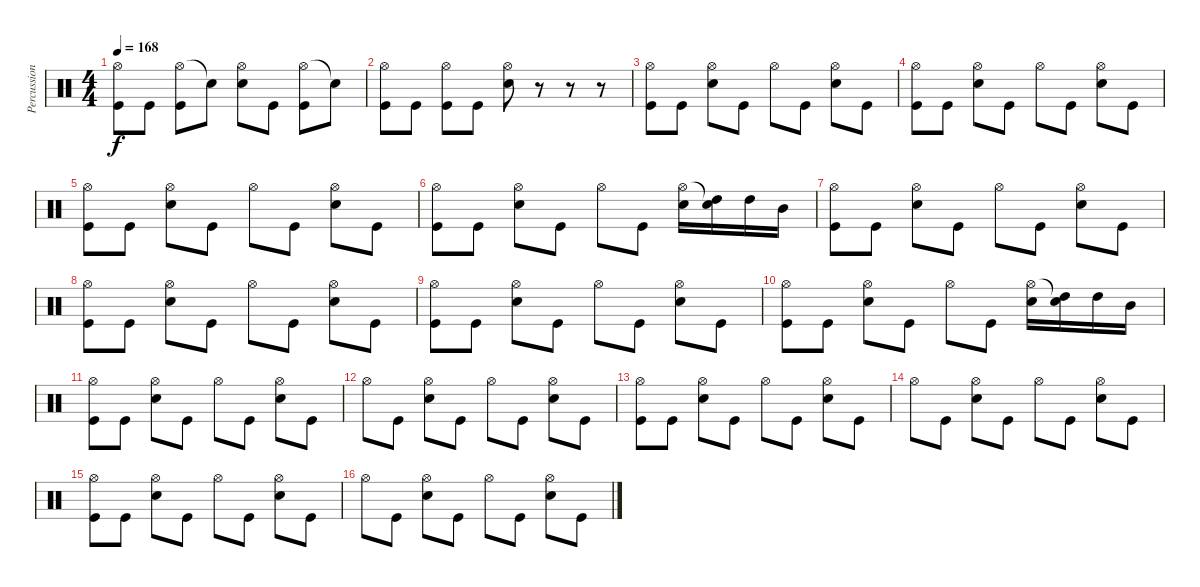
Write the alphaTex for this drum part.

\track ("Percussions" "Percussion") {instrument percussion}
\staff {score}
\articulation defaults
\ts (4 4)
\tempo 168
\clef neutral
\ks c
("Hi-Hat (open)" "Kick (hit)").8{dy f} "Kick (hit)".8 ("Hi-Hat (open)" "Kick (hit)").8 "Snare (hit)"{t}.8 ("Hi-Hat (open)" "Snare (hit) 2").8 "Kick (hit)".8 ("Hi-Hat (open)" "Kick (hit)").8 "Snare (hit)"{t}.8 |
("Hi-Hat (open)" "Kick (hit)").8 "Kick (hit)".8 ("Hi-Hat (open)" "Kick (hit)").8 "Kick (hit)".8 ("Hi-Hat (open)" "Snare (hit) 2").8 r.8 r.8 r.8 |
("Hi-Hat (open)" "Kick (hit)").8 "Kick (hit)".8 ("Hi-Hat (open)" "Snare (hit) 2").8 "Kick (hit)".8 "Hi-Hat (open)".8 "Kick (hit)".8 ("Hi-Hat (open)" "Snare (hit) 2").8 "Kick (hit)".8 |
("Hi-Hat (open)" "Kick (hit)").8 "Kick (hit)".8 ("Hi-Hat (open)" "Snare (hit) 2").8 "Kick (hit)".8 "Hi-Hat (open)".8 "Kick (hit)".8 ("Hi-Hat (open)" "Snare (hit) 2").8 "Kick (hit)".8 |
("Hi-Hat (open)" "Kick (hit)").8 "Kick (hit)".8 ("Hi-Hat (open)" "Snare (hit) 2").8 "Kick (hit)".8 "Hi-Hat (open)".8 "Kick (hit)".8 ("Hi-Hat (open)" "Snare (hit) 2").8 "Kick (hit)".8 |
("Hi-Hat (open)" "Kick (hit)").8 "Kick (hit)".8 ("Hi-Hat (open)" "Snare (hit) 2").8 "Kick (hit)".8 "Hi-Hat (open)".8 "Kick (hit)".8 ("Hi-Hat (open)" "Snare (hit) 2").16 ("Snare (hit)"{t} "High Tom (hit)").16 "High Tom (hit)".16 "Mid Tom (hit)".16 |
("Hi-Hat (open)" "Kick (hit)").8 "Kick (hit)".8 ("Hi-Hat (open)" "Snare (hit) 2").8 "Kick (hit)".8 "Hi-Hat (open)".8 "Kick (hit)".8 ("Hi-Hat (open)" "Snare (hit) 2").8 "Kick (hit)".8 |
("Hi-Hat (open)" "Kick (hit)").8 "Kick (hit)".8 ("Hi-Hat (open)" "Snare (hit) 2").8 "Kick (hit)".8 "Hi-Hat (open)".8 "Kick (hit)".8 ("Hi-Hat (open)" "Snare (hit) 2").8 "Kick (hit)".8 |
("Hi-Hat (open)" "Kick (hit)").8 "Kick (hit)".8 ("Hi-Hat (open)" "Snare (hit) 2").8 "Kick (hit)".8 "Hi-Hat (open)".8 "Kick (hit)".8 ("Hi-Hat (open)" "Snare (hit) 2").8 "Kick (hit)".8 |
("Hi-Hat (open)" "Kick (hit)").8 "Kick (hit)".8 ("Hi-Hat (open)" "Snare (hit) 2").8 "Kick (hit)".8 "Hi-Hat (open)".8 "Kick (hit)".8 ("Hi-Hat (open)" "Snare (hit) 2").16 ("Snare (hit)"{t} "High Tom (hit)").16 "High Tom (hit)".16 "Mid Tom (hit)".16 |
("Hi-Hat (open)" "Kick (hit)").8 "Kick (hit)".8 ("Hi-Hat (open)" "Snare (hit) 2").8 "Kick (hit)".8 "Hi-Hat (open)".8 "Kick (hit)".8 ("Hi-Hat (open)" "Snare (hit) 2").8 "Kick (hit)".8 |
"Hi-Hat (open)".8 "Kick (hit)".8 ("Hi-Hat (open)" "Snare (hit) 2").8 "Kick (hit)".8 "Hi-Hat (open)".8 "Kick (hit)".8 ("Hi-Hat (open)" "Snare (hit) 2").8 "Kick (hit)".8 |
("Hi-Hat (open)" "Kick (hit)").8 "Kick (hit)".8 ("Hi-Hat (open)" "Snare (hit) 2").8 "Kick (hit)".8 "Hi-Hat (open)".8 "Kick (hit)".8 ("Hi-Hat (open)" "Snare (hit) 2").8 "Kick (hit)".8 |
"Hi-Hat (open)".8 "Kick (hit)".8 ("Hi-Hat (open)" "Snare (hit) 2").8 "Kick (hit)".8 "Hi-Hat (open)".8 "Kick (hit)".8 ("Hi-Hat (open)" "Snare (hit) 2").8 "Kick (hit)".8 |
("Hi-Hat (open)" "Kick (hit)").8 "Kick (hit)".8 ("Hi-Hat (open)" "Snare (hit) 2").8 "Kick (hit)".8 "Hi-Hat (open)".8 "Kick (hit)".8 ("Hi-Hat (open)" "Snare (hit) 2").8 "Kick (hit)".8 |
"Hi-Hat (open)".8 "Kick (hit)".8 ("Hi-Hat (open)" "Snare (hit) 2").8 "Kick (hit)".8 "Hi-Hat (open)".8 "Kick (hit)".8 ("Hi-Hat (open)" "Snare (hit) 2").8 "Kick (hit)".8
